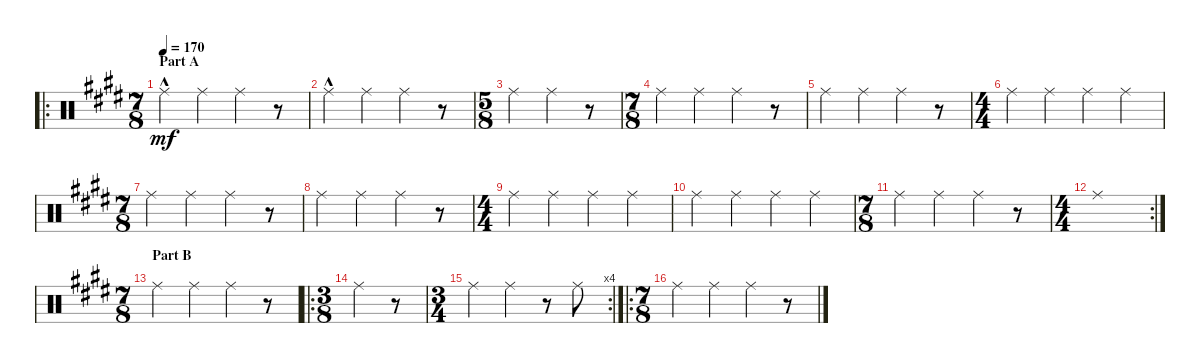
\defaultSystemsLayout 4
\bracketExtendMode groupsimilarinstruments
\singleTrackTrackNamePolicy hidden
\multiTrackTrackNamePolicy hidden
\otherSystemsTrackNameOrientation horizontal
\track ("Drumkit" "Drums") {instrument percussion}
\staff {score}
\articulation defaults
\ro
\ts (7 8)
\section ("" "Part A")
\tempo 170
\clef neutral
\scale
0.391473
\ks e "Ride (middle)"{hac}.4{dy mf} "Ride (middle)".4 "Ride (middle)".4
r.8 |
\scale
0.217054 "Ride (middle)"{hac}.4 "Ride (middle)".4 "Ride (middle)".4 r.8 |
\ts (5 8)
\scale
0.391473 "Ride (middle)".4 "Ride (middle)".4 r.8 |
\ts (7 8)
\scale
0.391473 "Ride (middle)".4 "Ride (middle)".4 "Ride (middle)".4 r.8 |
\scale
0.217054 "Ride (middle)".4 "Ride (middle)".4 "Ride (middle)".4 r.8 |
\ts (4 4)
\scale
0.391473 "Ride (middle)".4 "Ride (middle)".4 "Ride (middle)".4 "Ride (middle)".4 |
\ts (7 8)
\scale
0.474178 "Ride (middle)".4 "Ride (middle)".4 "Ride (middle)".4 r.8 |
\scale
0.262911 "Ride (middle)".4 "Ride (middle)".4 "Ride (middle)".4 r.8 |
\ts (4 4)
\scale
0.262911 "Ride (middle)".4 "Ride (middle)".4 "Ride (middle)".4 "Ride (middle)".4 |
"Ride (middle)".4 "Ride (middle)".4 "Ride (middle)".4 "Ride (middle)".4 |
\ts (7 8)
"Ride (middle)".4 "Ride (middle)".4 "Ride (middle)".4 r.8 |
\rc 2
\ts (4 4)
"Ride (middle)".1 |
\ts (7 8)
\section ("" "Part B")
\scale
0.307517 "Ride (middle)".4 "Ride (middle)".4 "Ride (middle)".4 r.8 |
\ro
\ts (3 8)
\scale
0.127116 "Ride (middle)".4 r.8 |
\rc 4
\ts (3 4)
\scale
0.180936 "Ride (middle)".4 "Ride (middle)".4 r.8 "Ride (middle)".8 |
\ro
\ts (7 8)
\scale
0.13333 "Ride (middle)".4 "Ride (middle)".4 "Ride (middle)".4 r.8
